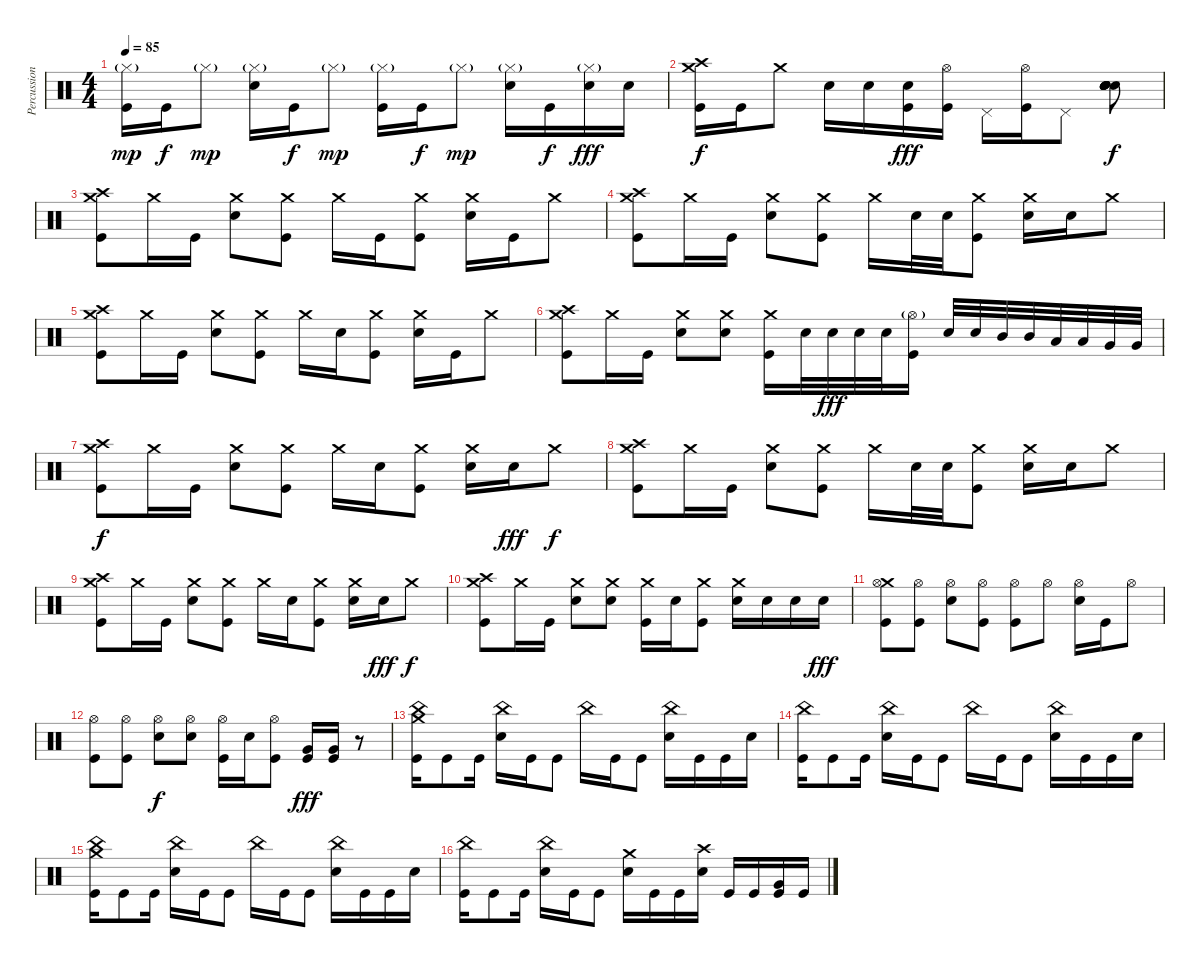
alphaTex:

\track ("Percussion" "Percussion") {instrument percussion}
\staff {score}
\articulation defaults
\ts (4 4)
\tempo 85
\clef neutral
\ks c
("Hi-Hat (closed)"{g} "Kick (hit)").16{dy mp} "Kick (hit)".16{dy f} "Hi-Hat (closed)"{g}.8{dy mp} ("Hi-Hat (closed)"{g} "Snare (hit) 2").16 "Kick (hit)".16{dy f} "Hi-Hat (closed)"{g}.8{dy mp} ("Hi-Hat (closed)"{g} "Kick (hit)").16 "Kick (hit)".16{dy f} "Hi-Hat (closed)"{g}.8{dy mp} ("Hi-Hat (closed)"{g} "Snare (hit) 2").16 "Kick (hit)".16{dy f} ("Hi-Hat (closed)"{g} "Snare (hit) 2").16{dy fff} "Snare (hit) 2".16 |
("Crash high (hit)" "Crash medium (hit)" "Kick (hit)").16{dy f} "Kick (hit)".16 "Crash medium (hit)".8 "Snare (hit) 2".16 "Snare (hit) 2".16 ("Snare (hit) 2" "Kick (hit)").16{dy fff} ("Hi-Hat (open)" "Kick (hit)").16 "Pedal Hi-Hat (hit)".16 ("Hi-Hat (open)" "Kick (hit)").16 "Pedal Hi-Hat (hit)".8 ("Snare (hit) 2" "Snare (hit) 2" "Snare (hit) 2" "Snare (hit) 2" "Snare (hit) 2" "Snare (hit) 2").8{dy f} |
("Crash high (hit)" "Crash medium (hit)" "Kick (hit)").8 "Crash medium (hit)".16 "Kick (hit)".16 ("Crash medium (hit)" "Snare (hit) 2").8 ("Crash medium (hit)" "Kick (hit)").8 "Crash medium (hit)".16 "Kick (hit)".16 ("Crash medium (hit)" "Kick (hit)").8 ("Crash medium (hit)" "Snare (hit) 2").16 "Kick (hit)".16 "Crash medium (hit)".8 |
("Crash high (hit)" "Crash medium (hit)" "Kick (hit)").8 "Crash medium (hit)".16 "Kick (hit)".16 ("Crash medium (hit)" "Snare (hit) 2").8 ("Crash medium (hit)" "Kick (hit)").8 "Crash medium (hit)".16 "Snare (hit) 2".32 "Snare (hit) 2".32 ("Crash medium (hit)" "Kick (hit)").8 ("Crash medium (hit)" "Snare (hit) 2").16 "Snare (hit) 2".16 "Crash medium (hit)".8 |
("Crash high (hit)" "Crash medium (hit)" "Kick (hit)").8 "Crash medium (hit)".16 "Kick (hit)".16 ("Crash medium (hit)" "Snare (hit) 2").8 ("Crash medium (hit)" "Kick (hit)").8 "Crash medium (hit)".16 "Snare (hit) 2".16 ("Crash medium (hit)" "Kick (hit)").8 ("Crash medium (hit)" "Snare (hit) 2").16 "Kick (hit)".16 "Crash medium (hit)".8 |
("Crash high (hit)" "Crash medium (hit)" "Kick (hit)").8 "Crash medium (hit)".16 "Kick (hit)".16 ("Crash medium (hit)" "Snare (hit) 2").8 ("Crash medium (hit)" "Snare (hit) 2").8 ("Crash medium (hit)" "Kick (hit)").16 "Snare (hit) 2".32 "Snare (hit) 2".32{dy fff} "Snare (hit) 2".32 "Snare (hit) 2".32 ("Hi-Hat (open)"{g} "Kick (hit)").16 "Snare (hit) 2".32 "Snare (hit) 2".32 "Mid Tom (hit)".32 "Mid Tom (hit)".32 "Low Tom (hit)".32 "Low Tom (hit)".32 "Very Low Tom (hit)".32 "Very Low Tom (hit)".32 |
("Crash high (hit)" "Crash medium (hit)" "Kick (hit)").8{dy f} "Crash medium (hit)".16 "Kick (hit)".16 ("Crash medium (hit)" "Snare (hit) 2").8 ("Crash medium (hit)" "Kick (hit)").8 "Crash medium (hit)".16 "Snare (hit) 2".16 ("Crash medium (hit)" "Kick (hit)").8 ("Crash medium (hit)" "Snare (hit) 2").16 "Snare (hit) 2".16{dy fff} "Crash medium (hit)".8{dy f} |
("Crash high (hit)" "Crash medium (hit)" "Kick (hit)").8 "Crash medium (hit)".16 "Kick (hit)".16 ("Crash medium (hit)" "Snare (hit) 2").8 ("Crash medium (hit)" "Kick (hit)").8 "Crash medium (hit)".16 "Snare (hit) 2".32 "Snare (hit) 2".32 ("Crash medium (hit)" "Kick (hit)").8 ("Crash medium (hit)" "Snare (hit) 2").16 "Snare (hit) 2".16 "Crash medium (hit)".8 |
("Crash high (hit)" "Crash medium (hit)" "Kick (hit)").8 "Crash medium (hit)".16 "Kick (hit)".16 ("Crash medium (hit)" "Snare (hit) 2").8 ("Crash medium (hit)" "Kick (hit)").8 "Crash medium (hit)".16 "Snare (hit) 2".16 ("Crash medium (hit)" "Kick (hit)").8 ("Crash medium (hit)" "Snare (hit) 2").16 "Snare (hit) 2".16{dy fff} "Crash medium (hit)".8{dy f} |
("Crash high (hit)" "Crash medium (hit)" "Kick (hit)").8 "Crash medium (hit)".16 "Kick (hit)".16 ("Crash medium (hit)" "Snare (hit) 2").8 ("Crash medium (hit)" "Snare (hit) 2").8 ("Crash medium (hit)" "Kick (hit)").16 "Snare (hit) 2".16 ("Crash medium (hit)" "Kick (hit)").8 ("Crash medium (hit)" "Snare (hit) 2").16 "Snare (hit) 2".16 "Snare (hit) 2".16 "Snare (hit) 2".16{dy fff} |
("Crash medium (hit)" "Hi-Hat (open)" "Kick (hit)").8 ("Hi-Hat (open)" "Kick (hit)").8 ("Hi-Hat (open)" "Snare (hit) 2").8 ("Hi-Hat (open)" "Kick (hit)").8 ("Hi-Hat (open)" "Kick (hit)").8 "Hi-Hat (open)".8 ("Hi-Hat (open)" "Snare (hit) 2").16 "Kick (hit)".16 "Hi-Hat (open)".8 |
("Hi-Hat (open)" "Kick (hit)").8 ("Hi-Hat (open)" "Kick (hit)").8 ("Hi-Hat (open)" "Snare (hit) 2").8{dy f} ("Hi-Hat (open)" "Snare (hit) 2").8 ("Hi-Hat (open)" "Kick (hit)").16 "Snare (hit) 2".16 ("Hi-Hat (open)" "Kick (hit)").8 ("Very Low Tom (hit)" "Kick (hit)").16{dy fff} ("Very Low Tom (hit)" "Kick (hit)").16 r.8 |
("Crash medium (hit)" "China (hit)" "Kick (hit)").16 "Kick (hit)".8 "Kick (hit)".16 ("China (hit)" "Snare (hit) 2").16 "Kick (hit)".16 "Kick (hit)".8 "China (hit)".16 "Kick (hit)".16 "Kick (hit)".8 ("China (hit)" "Snare (hit) 2").16 "Kick (hit)".16 "Kick (hit)".16 "Snare (hit) 2".16 |
("China (hit)" "Kick (hit)").16 "Kick (hit)".8 "Kick (hit)".16 ("China (hit)" "Snare (hit) 2").16 "Kick (hit)".16 "Kick (hit)".8 "China (hit)".16 "Kick (hit)".16 "Kick (hit)".8 ("China (hit)" "Snare (hit) 2").16 "Kick (hit)".16 "Kick (hit)".16 "Snare (hit) 2".16 |
("Crash medium (hit)" "China (hit)" "Kick (hit)").16 "Kick (hit)".8 "Kick (hit)".16 ("China (hit)" "Snare (hit) 2").16 "Kick (hit)".16 "Kick (hit)".8 "China (hit)".16 "Kick (hit)".16 "Kick (hit)".8 ("China (hit)" "Snare (hit) 2").16 "Kick (hit)".16 "Kick (hit)".16 "Snare (hit) 2".16 |
("China (hit)" "Kick (hit)").16 "Kick (hit)".8 "Kick (hit)".16 ("China (hit)" "Snare (hit) 2").16 "Kick (hit)".16 "Kick (hit)".8 ("Crash medium (hit)" "Snare (hit) 2").16 "Kick (hit)".16 "Kick (hit)".16 ("Crash high (hit)" "Snare (hit) 2").16 "Kick (hit)".16 "Kick (hit)".16 ("Very Low Tom (hit)" "Kick (hit)").16 "Kick (hit)".16
